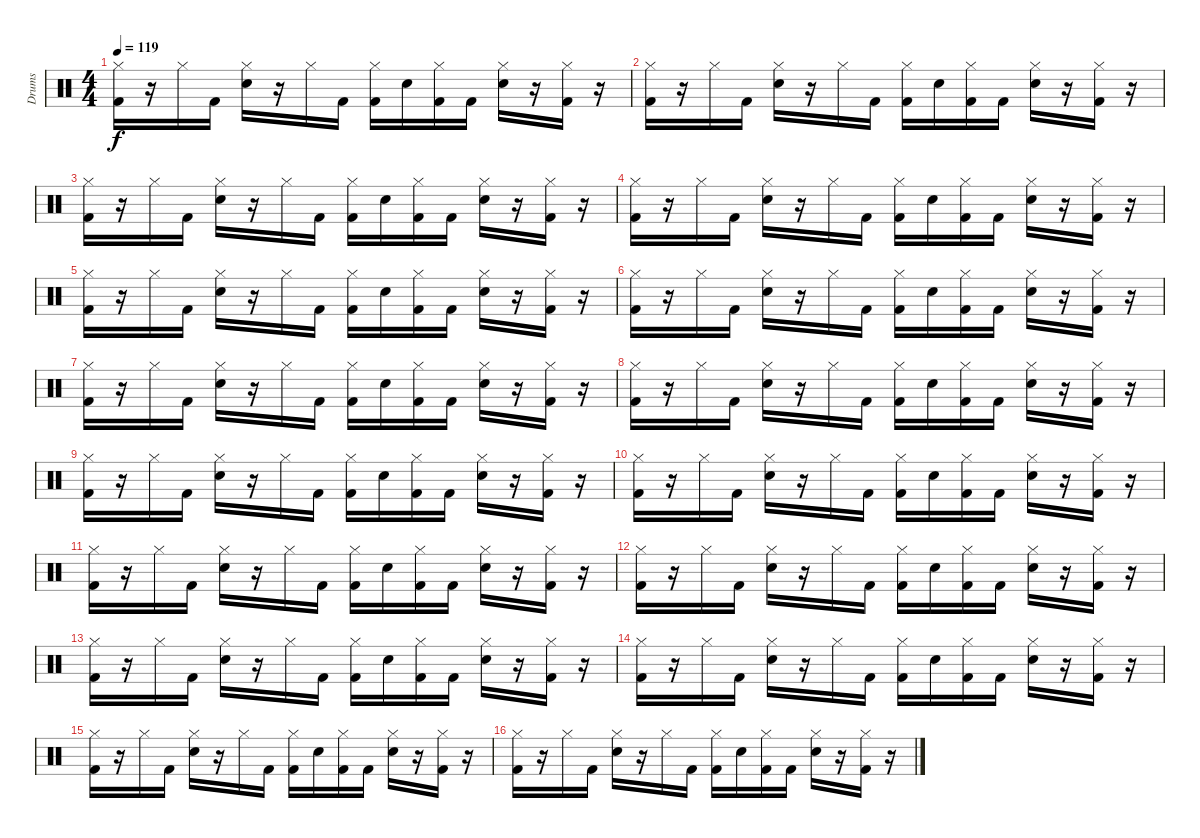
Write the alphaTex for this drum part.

\track ("Drums" "Drums") {instrument percussion}
\staff {score}
\articulation defaults
\ts (4 4)
\tempo 119
\clef neutral
\ks c
("Kick (hit) 2" "Hi-Hat (closed)").16{dy f} r.16 "Hi-Hat (closed)".16 "Kick (hit) 2".16 ("Snare (hit) 2" "Hi-Hat (closed)").16 r.16 "Hi-Hat (closed)".16 "Kick (hit) 2".16 ("Kick (hit) 2" "Hi-Hat (closed)").16 "Snare (hit) 2".16 ("Kick (hit) 2" "Hi-Hat (closed)").16 "Kick (hit) 2".16 ("Snare (hit) 2" "Hi-Hat (closed)").16 r.16 ("Kick (hit) 2" "Hi-Hat (closed)").16 r.16 |
("Kick (hit) 2" "Hi-Hat (closed)").16 r.16 "Hi-Hat (closed)".16 "Kick (hit) 2".16 ("Snare (hit) 2" "Hi-Hat (closed)").16 r.16 "Hi-Hat (closed)".16 "Kick (hit) 2".16 ("Kick (hit) 2" "Hi-Hat (closed)").16 "Snare (hit) 2".16 ("Kick (hit) 2" "Hi-Hat (closed)").16 "Kick (hit) 2".16 ("Snare (hit) 2" "Hi-Hat (closed)").16 r.16 ("Kick (hit) 2" "Hi-Hat (closed)").16 r.16 |
("Kick (hit) 2" "Hi-Hat (closed)").16 r.16 "Hi-Hat (closed)".16 "Kick (hit) 2".16 ("Snare (hit) 2" "Hi-Hat (closed)").16 r.16 "Hi-Hat (closed)".16 "Kick (hit) 2".16 ("Kick (hit) 2" "Hi-Hat (closed)").16 "Snare (hit) 2".16 ("Kick (hit) 2" "Hi-Hat (closed)").16 "Kick (hit) 2".16 ("Snare (hit) 2" "Hi-Hat (closed)").16 r.16 ("Kick (hit) 2" "Hi-Hat (closed)").16 r.16 |
("Kick (hit) 2" "Hi-Hat (closed)").16 r.16 "Hi-Hat (closed)".16 "Kick (hit) 2".16 ("Snare (hit) 2" "Hi-Hat (closed)").16 r.16 "Hi-Hat (closed)".16 "Kick (hit) 2".16 ("Kick (hit) 2" "Hi-Hat (closed)").16 "Snare (hit) 2".16 ("Kick (hit) 2" "Hi-Hat (closed)").16 "Kick (hit) 2".16 ("Snare (hit) 2" "Hi-Hat (closed)").16 r.16 ("Kick (hit) 2" "Hi-Hat (closed)").16 r.16 |
("Kick (hit) 2" "Hi-Hat (closed)").16 r.16 "Hi-Hat (closed)".16 "Kick (hit) 2".16 ("Snare (hit) 2" "Hi-Hat (closed)").16 r.16 "Hi-Hat (closed)".16 "Kick (hit) 2".16 ("Kick (hit) 2" "Hi-Hat (closed)").16 "Snare (hit) 2".16 ("Kick (hit) 2" "Hi-Hat (closed)").16 "Kick (hit) 2".16 ("Snare (hit) 2" "Hi-Hat (closed)").16 r.16 ("Kick (hit) 2" "Hi-Hat (closed)").16 r.16 |
("Kick (hit) 2" "Hi-Hat (closed)").16 r.16 "Hi-Hat (closed)".16 "Kick (hit) 2".16 ("Snare (hit) 2" "Hi-Hat (closed)").16 r.16 "Hi-Hat (closed)".16 "Kick (hit) 2".16 ("Kick (hit) 2" "Hi-Hat (closed)").16 "Snare (hit) 2".16 ("Kick (hit) 2" "Hi-Hat (closed)").16 "Kick (hit) 2".16 ("Snare (hit) 2" "Hi-Hat (closed)").16 r.16 ("Kick (hit) 2" "Hi-Hat (closed)").16 r.16 |
("Kick (hit) 2" "Hi-Hat (closed)").16 r.16 "Hi-Hat (closed)".16 "Kick (hit) 2".16 ("Snare (hit) 2" "Hi-Hat (closed)").16 r.16 "Hi-Hat (closed)".16 "Kick (hit) 2".16 ("Kick (hit) 2" "Hi-Hat (closed)").16 "Snare (hit) 2".16 ("Kick (hit) 2" "Hi-Hat (closed)").16 "Kick (hit) 2".16 ("Snare (hit) 2" "Hi-Hat (closed)").16 r.16 ("Kick (hit) 2" "Hi-Hat (closed)").16 r.16 |
("Kick (hit) 2" "Hi-Hat (closed)").16 r.16 "Hi-Hat (closed)".16 "Kick (hit) 2".16 ("Snare (hit) 2" "Hi-Hat (closed)").16 r.16 "Hi-Hat (closed)".16 "Kick (hit) 2".16 ("Kick (hit) 2" "Hi-Hat (closed)").16 "Snare (hit) 2".16 ("Kick (hit) 2" "Hi-Hat (closed)").16 "Kick (hit) 2".16 ("Snare (hit) 2" "Hi-Hat (closed)").16 r.16 ("Kick (hit) 2" "Hi-Hat (closed)").16 r.16 |
("Kick (hit) 2" "Hi-Hat (closed)").16 r.16 "Hi-Hat (closed)".16 "Kick (hit) 2".16 ("Snare (hit) 2" "Hi-Hat (closed)").16 r.16 "Hi-Hat (closed)".16 "Kick (hit) 2".16 ("Kick (hit) 2" "Hi-Hat (closed)").16 "Snare (hit) 2".16 ("Kick (hit) 2" "Hi-Hat (closed)").16 "Kick (hit) 2".16 ("Snare (hit) 2" "Hi-Hat (closed)").16 r.16 ("Kick (hit) 2" "Hi-Hat (closed)").16 r.16 |
("Kick (hit) 2" "Hi-Hat (closed)").16 r.16 "Hi-Hat (closed)".16 "Kick (hit) 2".16 ("Snare (hit) 2" "Hi-Hat (closed)").16 r.16 "Hi-Hat (closed)".16 "Kick (hit) 2".16 ("Kick (hit) 2" "Hi-Hat (closed)").16 "Snare (hit) 2".16 ("Kick (hit) 2" "Hi-Hat (closed)").16 "Kick (hit) 2".16 ("Snare (hit) 2" "Hi-Hat (closed)").16 r.16 ("Kick (hit) 2" "Hi-Hat (closed)").16 r.16 |
("Kick (hit) 2" "Hi-Hat (closed)").16 r.16 "Hi-Hat (closed)".16 "Kick (hit) 2".16 ("Snare (hit) 2" "Hi-Hat (closed)").16 r.16 "Hi-Hat (closed)".16 "Kick (hit) 2".16 ("Kick (hit) 2" "Hi-Hat (closed)").16 "Snare (hit) 2".16 ("Kick (hit) 2" "Hi-Hat (closed)").16 "Kick (hit) 2".16 ("Snare (hit) 2" "Hi-Hat (closed)").16 r.16 ("Kick (hit) 2" "Hi-Hat (closed)").16 r.16 |
("Kick (hit) 2" "Hi-Hat (closed)").16 r.16 "Hi-Hat (closed)".16 "Kick (hit) 2".16 ("Snare (hit) 2" "Hi-Hat (closed)").16 r.16 "Hi-Hat (closed)".16 "Kick (hit) 2".16 ("Kick (hit) 2" "Hi-Hat (closed)").16 "Snare (hit) 2".16 ("Kick (hit) 2" "Hi-Hat (closed)").16 "Kick (hit) 2".16 ("Snare (hit) 2" "Hi-Hat (closed)").16 r.16 ("Kick (hit) 2" "Hi-Hat (closed)").16 r.16 |
("Kick (hit) 2" "Hi-Hat (closed)").16 r.16 "Hi-Hat (closed)".16 "Kick (hit) 2".16 ("Snare (hit) 2" "Hi-Hat (closed)").16 r.16 "Hi-Hat (closed)".16 "Kick (hit) 2".16 ("Kick (hit) 2" "Hi-Hat (closed)").16 "Snare (hit) 2".16 ("Kick (hit) 2" "Hi-Hat (closed)").16 "Kick (hit) 2".16 ("Snare (hit) 2" "Hi-Hat (closed)").16 r.16 ("Kick (hit) 2" "Hi-Hat (closed)").16 r.16 |
("Kick (hit) 2" "Hi-Hat (closed)").16 r.16 "Hi-Hat (closed)".16 "Kick (hit) 2".16 ("Snare (hit) 2" "Hi-Hat (closed)").16 r.16 "Hi-Hat (closed)".16 "Kick (hit) 2".16 ("Kick (hit) 2" "Hi-Hat (closed)").16 "Snare (hit) 2".16 ("Kick (hit) 2" "Hi-Hat (closed)").16 "Kick (hit) 2".16 ("Snare (hit) 2" "Hi-Hat (closed)").16 r.16 ("Kick (hit) 2" "Hi-Hat (closed)").16 r.16 |
("Kick (hit) 2" "Hi-Hat (closed)").16 r.16 "Hi-Hat (closed)".16 "Kick (hit) 2".16 ("Snare (hit) 2" "Hi-Hat (closed)").16 r.16 "Hi-Hat (closed)".16 "Kick (hit) 2".16 ("Kick (hit) 2" "Hi-Hat (closed)").16 "Snare (hit) 2".16 ("Kick (hit) 2" "Hi-Hat (closed)").16 "Kick (hit) 2".16 ("Snare (hit) 2" "Hi-Hat (closed)").16 r.16 ("Kick (hit) 2" "Hi-Hat (closed)").16 r.16 |
("Kick (hit) 2" "Hi-Hat (closed)").16 r.16 "Hi-Hat (closed)".16 "Kick (hit) 2".16 ("Snare (hit) 2" "Hi-Hat (closed)").16 r.16 "Hi-Hat (closed)".16 "Kick (hit) 2".16 ("Kick (hit) 2" "Hi-Hat (closed)").16 "Snare (hit) 2".16 ("Kick (hit) 2" "Hi-Hat (closed)").16 "Kick (hit) 2".16 ("Snare (hit) 2" "Hi-Hat (closed)").16 r.16 ("Kick (hit) 2" "Hi-Hat (closed)").16 r.16
